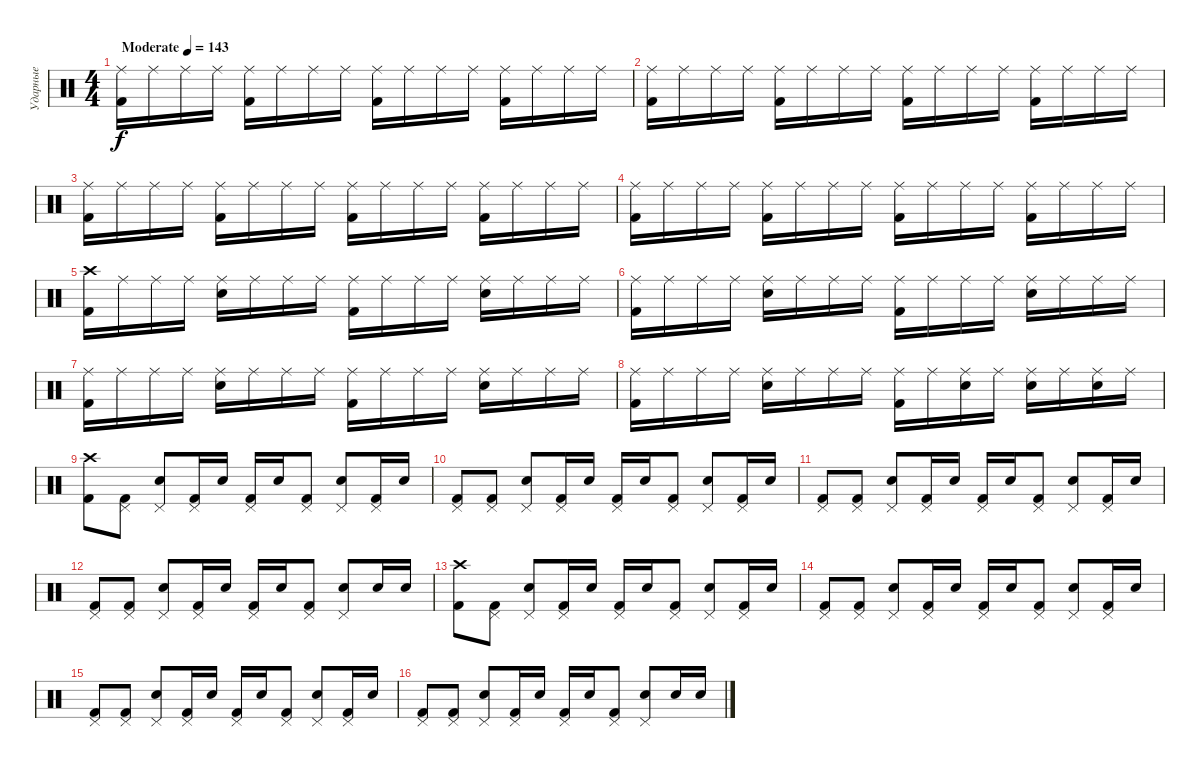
\track ("Ударные" "Ударные") {instrument percussion}
\staff {score}
\articulation defaults
\ts (4 4)
\tempo (143 "Moderate")
\clef neutral
\ks c
("Ride (middle)" "Kick (hit) 2").16{dy f} "Ride (middle)".16 "Ride (middle)".16 "Ride (middle)".16 ("Ride (middle)" "Kick (hit) 2").16 "Ride (middle)".16 "Ride (middle)".16 "Ride (middle)".16 ("Ride (middle)" "Kick (hit) 2").16 "Ride (middle)".16 "Ride (middle)".16 "Ride (middle)".16 ("Ride (middle)" "Kick (hit) 2").16 "Ride (middle)".16 "Ride (middle)".16 "Ride (middle)".16 |
("Ride (middle)" "Kick (hit) 2").16 "Ride (middle)".16 "Ride (middle)".16 "Ride (middle)".16 ("Ride (middle)" "Kick (hit) 2").16 "Ride (middle)".16 "Ride (middle)".16 "Ride (middle)".16 ("Ride (middle)" "Kick (hit) 2").16 "Ride (middle)".16 "Ride (middle)".16 "Ride (middle)".16 ("Ride (middle)" "Kick (hit) 2").16 "Ride (middle)".16 "Ride (middle)".16 "Ride (middle)".16 |
("Ride (middle)" "Kick (hit) 2").16 "Ride (middle)".16 "Ride (middle)".16 "Ride (middle)".16 ("Ride (middle)" "Kick (hit) 2").16 "Ride (middle)".16 "Ride (middle)".16 "Ride (middle)".16 ("Ride (middle)" "Kick (hit) 2").16 "Ride (middle)".16 "Ride (middle)".16 "Ride (middle)".16 ("Ride (middle)" "Kick (hit) 2").16 "Ride (middle)".16 "Ride (middle)".16 "Ride (middle)".16 |
("Ride (middle)" "Kick (hit) 2").16 "Ride (middle)".16 "Ride (middle)".16 "Ride (middle)".16 ("Ride (middle)" "Kick (hit) 2").16 "Ride (middle)".16 "Ride (middle)".16 "Ride (middle)".16 ("Ride (middle)" "Kick (hit) 2").16 "Ride (middle)".16 "Ride (middle)".16 "Ride (middle)".16 ("Ride (middle)" "Kick (hit) 2").16 "Ride (middle)".16 "Ride (middle)".16 "Ride (middle)".16 |
("Crash high (hit)" "Kick (hit) 2").16 "Ride (middle)".16 "Ride (middle)".16 "Ride (middle)".16 ("Ride (middle)" "Electric Snare (hit)").16 "Ride (middle)".16 "Ride (middle)".16 "Ride (middle)".16 ("Ride (middle)" "Kick (hit) 2").16 "Ride (middle)".16 "Ride (middle)".16 "Ride (middle)".16 ("Ride (middle)" "Electric Snare (hit)").16 "Ride (middle)".16 "Ride (middle)".16 "Ride (middle)".16 |
("Ride (middle)" "Kick (hit) 2").16 "Ride (middle)".16 "Ride (middle)".16 "Ride (middle)".16 ("Ride (middle)" "Electric Snare (hit)").16 "Ride (middle)".16 "Ride (middle)".16 "Ride (middle)".16 ("Ride (middle)" "Kick (hit) 2").16 "Ride (middle)".16 "Ride (middle)".16 "Ride (middle)".16 ("Ride (middle)" "Electric Snare (hit)").16 "Ride (middle)".16 "Ride (middle)".16 "Ride (middle)".16 |
("Ride (middle)" "Kick (hit) 2").16 "Ride (middle)".16 "Ride (middle)".16 "Ride (middle)".16 ("Ride (middle)" "Electric Snare (hit)").16 "Ride (middle)".16 "Ride (middle)".16 "Ride (middle)".16 ("Ride (middle)" "Kick (hit) 2").16 "Ride (middle)".16 "Ride (middle)".16 "Ride (middle)".16 ("Ride (middle)" "Electric Snare (hit)").16 "Ride (middle)".16 "Ride (middle)".16 "Ride (middle)".16 |
("Ride (middle)" "Kick (hit) 2").16 "Ride (middle)".16 "Ride (middle)".16 "Ride (middle)".16 ("Ride (middle)" "Electric Snare (hit)").16 "Ride (middle)".16 "Ride (middle)".16 "Ride (middle)".16 ("Ride (middle)" "Kick (hit) 2").16 "Ride (middle)".16 ("Ride (middle)" "Electric Snare (hit)").16 "Ride (middle)".16 ("Ride (middle)" "Electric Snare (hit)").16 "Ride (middle)".16 ("Ride (middle)" "Electric Snare (hit)").16 "Ride (middle)".16 |
("Crash high (hit)" "Kick (hit) 2").8 ("Pedal Hi-Hat (hit)" "Kick (hit) 2").8 ("Pedal Hi-Hat (hit)" "Electric Snare (hit)").8 ("Pedal Hi-Hat (hit)" "Kick (hit) 2").16 "Electric Snare (hit)".16 ("Pedal Hi-Hat (hit)" "Kick (hit) 2").16 "Electric Snare (hit)".16 ("Pedal Hi-Hat (hit)" "Kick (hit) 2").8 ("Pedal Hi-Hat (hit)" "Electric Snare (hit)").8 ("Pedal Hi-Hat (hit)" "Kick (hit) 2").16 "Electric Snare (hit)".16 |
("Pedal Hi-Hat (hit)" "Kick (hit) 2").8 ("Pedal Hi-Hat (hit)" "Kick (hit) 2").8 ("Pedal Hi-Hat (hit)" "Electric Snare (hit)").8 ("Pedal Hi-Hat (hit)" "Kick (hit) 2").16 "Electric Snare (hit)".16 ("Pedal Hi-Hat (hit)" "Kick (hit) 2").16 "Electric Snare (hit)".16 ("Pedal Hi-Hat (hit)" "Kick (hit) 2").8 ("Pedal Hi-Hat (hit)" "Electric Snare (hit)").8 ("Pedal Hi-Hat (hit)" "Kick (hit) 2").16 "Electric Snare (hit)".16 |
("Pedal Hi-Hat (hit)" "Kick (hit) 2").8 ("Pedal Hi-Hat (hit)" "Kick (hit) 2").8 ("Pedal Hi-Hat (hit)" "Electric Snare (hit)").8 ("Pedal Hi-Hat (hit)" "Kick (hit) 2").16 "Electric Snare (hit)".16 ("Pedal Hi-Hat (hit)" "Kick (hit) 2").16 "Electric Snare (hit)".16 ("Pedal Hi-Hat (hit)" "Kick (hit) 2").8 ("Pedal Hi-Hat (hit)" "Electric Snare (hit)").8 ("Pedal Hi-Hat (hit)" "Kick (hit) 2").16 "Electric Snare (hit)".16 |
("Pedal Hi-Hat (hit)" "Kick (hit) 2").8 ("Pedal Hi-Hat (hit)" "Kick (hit) 2").8 ("Pedal Hi-Hat (hit)" "Electric Snare (hit)").8 ("Pedal Hi-Hat (hit)" "Kick (hit) 2").16 "Electric Snare (hit)".16 ("Pedal Hi-Hat (hit)" "Kick (hit) 2").16 "Electric Snare (hit)".16 ("Pedal Hi-Hat (hit)" "Kick (hit) 2").8 ("Pedal Hi-Hat (hit)" "Electric Snare (hit)").8 "Electric Snare (hit)".16 "Electric Snare (hit)".16 |
("Crash high (hit)" "Kick (hit) 2").8 ("Pedal Hi-Hat (hit)" "Kick (hit) 2").8 ("Pedal Hi-Hat (hit)" "Electric Snare (hit)").8 ("Pedal Hi-Hat (hit)" "Kick (hit) 2").16 "Electric Snare (hit)".16 ("Pedal Hi-Hat (hit)" "Kick (hit) 2").16 "Electric Snare (hit)".16 ("Pedal Hi-Hat (hit)" "Kick (hit) 2").8 ("Pedal Hi-Hat (hit)" "Electric Snare (hit)").8 ("Pedal Hi-Hat (hit)" "Kick (hit) 2").16 "Electric Snare (hit)".16 |
("Pedal Hi-Hat (hit)" "Kick (hit) 2").8 ("Pedal Hi-Hat (hit)" "Kick (hit) 2").8 ("Pedal Hi-Hat (hit)" "Electric Snare (hit)").8 ("Pedal Hi-Hat (hit)" "Kick (hit) 2").16 "Electric Snare (hit)".16 ("Pedal Hi-Hat (hit)" "Kick (hit) 2").16 "Electric Snare (hit)".16 ("Pedal Hi-Hat (hit)" "Kick (hit) 2").8 ("Pedal Hi-Hat (hit)" "Electric Snare (hit)").8 ("Pedal Hi-Hat (hit)" "Kick (hit) 2").16 "Electric Snare (hit)".16 |
("Pedal Hi-Hat (hit)" "Kick (hit) 2").8 ("Pedal Hi-Hat (hit)" "Kick (hit) 2").8 ("Pedal Hi-Hat (hit)" "Electric Snare (hit)").8 ("Pedal Hi-Hat (hit)" "Kick (hit) 2").16 "Electric Snare (hit)".16 ("Pedal Hi-Hat (hit)" "Kick (hit) 2").16 "Electric Snare (hit)".16 ("Pedal Hi-Hat (hit)" "Kick (hit) 2").8 ("Pedal Hi-Hat (hit)" "Electric Snare (hit)").8 ("Pedal Hi-Hat (hit)" "Kick (hit) 2").16 "Electric Snare (hit)".16 |
("Pedal Hi-Hat (hit)" "Kick (hit) 2").8 ("Pedal Hi-Hat (hit)" "Kick (hit) 2").8 ("Pedal Hi-Hat (hit)" "Electric Snare (hit)").8 ("Pedal Hi-Hat (hit)" "Kick (hit) 2").16 "Electric Snare (hit)".16 ("Pedal Hi-Hat (hit)" "Kick (hit) 2").16 "Electric Snare (hit)".16 ("Pedal Hi-Hat (hit)" "Kick (hit) 2").8 ("Pedal Hi-Hat (hit)" "Electric Snare (hit)").8 "Electric Snare (hit)".16 "Electric Snare (hit)".16
